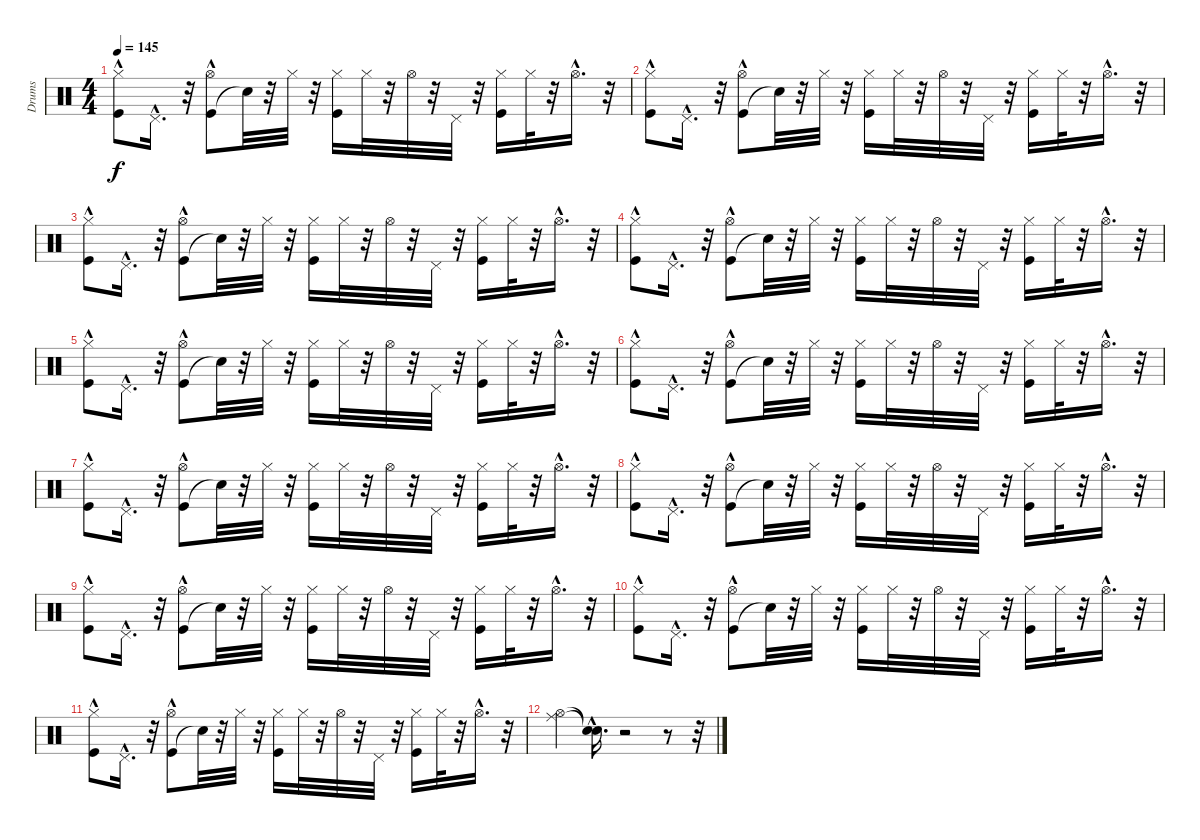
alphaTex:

\track ("Drums" "Drums") {instrument percussion}
\staff {score}
\articulation defaults
\ts (4 4)
\tempo 145
\clef neutral
\ks c
("Kick (hit)" "Hi-Hat (closed)"{hac}).8{dy f} "Pedal Hi-Hat (hit)"{hac}.16{d} r.32 ("Kick (hit)" "Hi-Hat (open)"{hac}).8 "Snare (hit)"{t}.32 r.32 "Hi-Hat (closed)".32 r.32 ("Kick (hit)" "Hi-Hat (closed)").16 "Hi-Hat (closed)".32 r.32 "Hi-Hat (open)".32 r.32 "Pedal Hi-Hat (hit)".32 r.32 ("Kick (hit)" "Hi-Hat (closed)").16 "Hi-Hat (closed)".32 r.32 "Hi-Hat (open)"{hac}.16{d} r.32 |
("Kick (hit)" "Hi-Hat (closed)"{hac}).8 "Pedal Hi-Hat (hit)"{hac}.16{d} r.32 ("Kick (hit)" "Hi-Hat (open)"{hac}).8 "Snare (hit)"{t}.32 r.32 "Hi-Hat (closed)".32 r.32 ("Kick (hit)" "Hi-Hat (closed)").16 "Hi-Hat (closed)".32 r.32 "Hi-Hat (open)".32 r.32 "Pedal Hi-Hat (hit)".32 r.32 ("Kick (hit)" "Hi-Hat (closed)").16 "Hi-Hat (closed)".32 r.32 "Hi-Hat (open)"{hac}.16{d} r.32 |
("Kick (hit)" "Hi-Hat (closed)"{hac}).8 "Pedal Hi-Hat (hit)"{hac}.16{d} r.32 ("Kick (hit)" "Hi-Hat (open)"{hac}).8 "Snare (hit)"{t}.32 r.32 "Hi-Hat (closed)".32 r.32 ("Kick (hit)" "Hi-Hat (closed)").16 "Hi-Hat (closed)".32 r.32 "Hi-Hat (open)".32 r.32 "Pedal Hi-Hat (hit)".32 r.32 ("Kick (hit)" "Hi-Hat (closed)").16 "Hi-Hat (closed)".32 r.32 "Hi-Hat (open)"{hac}.16{d} r.32 |
("Kick (hit)" "Hi-Hat (closed)"{hac}).8 "Pedal Hi-Hat (hit)"{hac}.16{d} r.32 ("Kick (hit)" "Hi-Hat (open)"{hac}).8 "Snare (hit)"{t}.32 r.32 "Hi-Hat (closed)".32 r.32 ("Kick (hit)" "Hi-Hat (closed)").16 "Hi-Hat (closed)".32 r.32 "Hi-Hat (open)".32 r.32 "Pedal Hi-Hat (hit)".32 r.32 ("Kick (hit)" "Hi-Hat (closed)").16 "Hi-Hat (closed)".32 r.32 "Hi-Hat (open)"{hac}.16{d} r.32 |
("Kick (hit)" "Hi-Hat (closed)"{hac}).8 "Pedal Hi-Hat (hit)"{hac}.16{d} r.32 ("Kick (hit)" "Hi-Hat (open)"{hac}).8 "Snare (hit)"{t}.32 r.32 "Hi-Hat (closed)".32 r.32 ("Kick (hit)" "Hi-Hat (closed)").16 "Hi-Hat (closed)".32 r.32 "Hi-Hat (open)".32 r.32 "Pedal Hi-Hat (hit)".32 r.32 ("Kick (hit)" "Hi-Hat (closed)").16 "Hi-Hat (closed)".32 r.32 "Hi-Hat (open)"{hac}.16{d} r.32 |
("Kick (hit)" "Hi-Hat (closed)"{hac}).8 "Pedal Hi-Hat (hit)"{hac}.16{d} r.32 ("Kick (hit)" "Hi-Hat (open)"{hac}).8 "Snare (hit)"{t}.32 r.32 "Hi-Hat (closed)".32 r.32 ("Kick (hit)" "Hi-Hat (closed)").16 "Hi-Hat (closed)".32 r.32 "Hi-Hat (open)".32 r.32 "Pedal Hi-Hat (hit)".32 r.32 ("Kick (hit)" "Hi-Hat (closed)").16 "Hi-Hat (closed)".32 r.32 "Hi-Hat (open)"{hac}.16{d} r.32 |
("Kick (hit)" "Hi-Hat (closed)"{hac}).8 "Pedal Hi-Hat (hit)"{hac}.16{d} r.32 ("Kick (hit)" "Hi-Hat (open)"{hac}).8 "Snare (hit)"{t}.32 r.32 "Hi-Hat (closed)".32 r.32 ("Kick (hit)" "Hi-Hat (closed)").16 "Hi-Hat (closed)".32 r.32 "Hi-Hat (open)".32 r.32 "Pedal Hi-Hat (hit)".32 r.32 ("Kick (hit)" "Hi-Hat (closed)").16 "Hi-Hat (closed)".32 r.32 "Hi-Hat (open)"{hac}.16{d} r.32 |
("Kick (hit)" "Hi-Hat (closed)"{hac}).8 "Pedal Hi-Hat (hit)"{hac}.16{d} r.32 ("Kick (hit)" "Hi-Hat (open)"{hac}).8 "Snare (hit)"{t}.32 r.32 "Hi-Hat (closed)".32 r.32 ("Kick (hit)" "Hi-Hat (closed)").16 "Hi-Hat (closed)".32 r.32 "Hi-Hat (open)".32 r.32 "Pedal Hi-Hat (hit)".32 r.32 ("Kick (hit)" "Hi-Hat (closed)").16 "Hi-Hat (closed)".32 r.32 "Hi-Hat (open)"{hac}.16{d} r.32 |
("Kick (hit)" "Hi-Hat (closed)"{hac}).8 "Pedal Hi-Hat (hit)"{hac}.16{d} r.32 ("Kick (hit)" "Hi-Hat (open)"{hac}).8 "Snare (hit)"{t}.32 r.32 "Hi-Hat (closed)".32 r.32 ("Kick (hit)" "Hi-Hat (closed)").16 "Hi-Hat (closed)".32 r.32 "Hi-Hat (open)".32 r.32 "Pedal Hi-Hat (hit)".32 r.32 ("Kick (hit)" "Hi-Hat (closed)").16 "Hi-Hat (closed)".32 r.32 "Hi-Hat (open)"{hac}.16{d} r.32 |
("Kick (hit)" "Hi-Hat (closed)"{hac}).8 "Pedal Hi-Hat (hit)"{hac}.16{d} r.32 ("Kick (hit)" "Hi-Hat (open)"{hac}).8 "Snare (hit)"{t}.32 r.32 "Hi-Hat (closed)".32 r.32 ("Kick (hit)" "Hi-Hat (closed)").16 "Hi-Hat (closed)".32 r.32 "Hi-Hat (open)".32 r.32 "Pedal Hi-Hat (hit)".32 r.32 ("Kick (hit)" "Hi-Hat (closed)").16 "Hi-Hat (closed)".32 r.32 "Hi-Hat (open)"{hac}.16{d} r.32 |
("Kick (hit)" "Hi-Hat (closed)"{hac}).8 "Pedal Hi-Hat (hit)"{hac}.16{d} r.32 ("Kick (hit)" "Hi-Hat (open)"{hac}).8 "Snare (hit)"{t}.32 r.32 "Hi-Hat (closed)".32 r.32 ("Kick (hit)" "Hi-Hat (closed)").16 "Hi-Hat (closed)".32 r.32 "Hi-Hat (open)".32 r.32 "Pedal Hi-Hat (hit)".32 r.32 ("Kick (hit)" "Hi-Hat (closed)").16 "Hi-Hat (closed)".32 r.32 "Hi-Hat (open)"{hac}.16{d} r.32 |
("Ride (middle)" "Hi-Hat (open)").4 ("Snare (hit)"{hac t} "Snare (hit)"{hac t}).16{d} r.2 r.8 r.32
